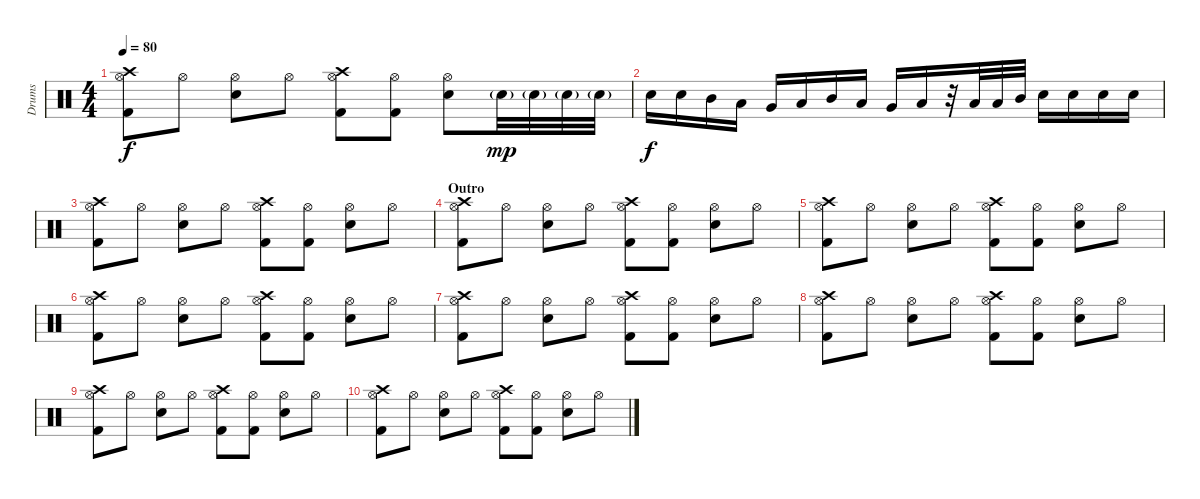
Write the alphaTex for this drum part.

\track ("Drums" "Drums") {instrument percussion}
\staff {score}
\articulation defaults
\ts (4 4)
\tempo 80
\clef neutral
\ks c
("Crash high (hit)" "Hi-Hat (open)" "Kick (hit) 2").8{dy f} "Hi-Hat (open)".8 ("Hi-Hat (open)" "Electric Snare (hit)").8 "Hi-Hat (open)".8 ("Crash high (hit)" "Hi-Hat (open)" "Kick (hit) 2").8 ("Hi-Hat (open)" "Kick (hit) 2").8 ("Hi-Hat (open)" "Electric Snare (hit)").8 "Electric Snare (hit)"{g}.32{dy mp} "Electric Snare (hit)"{g}.32 "Electric Snare (hit)"{g}.32 "Electric Snare (hit)"{g}.32 |
"Electric Snare (hit)".16{dy f} "Electric Snare (hit)".16 "Mid Tom (hit)".16 "Low Tom (hit)".16 "Very Low Tom (hit)".16 "Low Floor Tom (hit)".16 "Mid Tom (hit)".16 "Low Tom (hit)".16 "Very Low Tom (hit)".16 "Low Floor Tom (hit)".16 r.32 "Low Tom (hit)".32 "Low Tom (hit)".32 "Mid Tom (hit)".32 "Electric Snare (hit)".16 "Electric Snare (hit)".16 "Electric Snare (hit)".16 "Electric Snare (hit)".16 |
("Crash high (hit)" "Hi-Hat (open)" "Kick (hit) 2").8 "Hi-Hat (open)".8 ("Hi-Hat (open)" "Electric Snare (hit)").8 "Hi-Hat (open)".8 ("Crash high (hit)" "Hi-Hat (open)" "Kick (hit) 2").8 ("Hi-Hat (open)" "Kick (hit) 2").8 ("Hi-Hat (open)" "Electric Snare (hit)").8 "Hi-Hat (open)".8 |
\section ("" "Outro")
("Crash high (hit)" "Hi-Hat (open)" "Kick (hit) 2").8 "Hi-Hat (open)".8 ("Hi-Hat (open)" "Electric Snare (hit)").8 "Hi-Hat (open)".8 ("Crash high (hit)" "Hi-Hat (open)" "Kick (hit) 2").8 ("Hi-Hat (open)" "Kick (hit) 2").8 ("Hi-Hat (open)" "Electric Snare (hit)").8 "Hi-Hat (open)".8 |
("Crash high (hit)" "Hi-Hat (open)" "Kick (hit) 2").8 "Hi-Hat (open)".8 ("Hi-Hat (open)" "Electric Snare (hit)").8 "Hi-Hat (open)".8 ("Crash high (hit)" "Hi-Hat (open)" "Kick (hit) 2").8 ("Hi-Hat (open)" "Kick (hit) 2").8 ("Hi-Hat (open)" "Electric Snare (hit)").8 "Hi-Hat (open)".8 |
("Crash high (hit)" "Hi-Hat (open)" "Kick (hit) 2").8 "Hi-Hat (open)".8 ("Hi-Hat (open)" "Electric Snare (hit)").8 "Hi-Hat (open)".8 ("Crash high (hit)" "Hi-Hat (open)" "Kick (hit) 2").8 ("Hi-Hat (open)" "Kick (hit) 2").8 ("Hi-Hat (open)" "Electric Snare (hit)").8 "Hi-Hat (open)".8 |
("Crash high (hit)" "Hi-Hat (open)" "Kick (hit) 2").8 "Hi-Hat (open)".8 ("Hi-Hat (open)" "Electric Snare (hit)").8 "Hi-Hat (open)".8 ("Crash high (hit)" "Hi-Hat (open)" "Kick (hit) 2").8 ("Hi-Hat (open)" "Kick (hit) 2").8 ("Hi-Hat (open)" "Electric Snare (hit)").8 "Hi-Hat (open)".8 |
("Crash high (hit)" "Hi-Hat (open)" "Kick (hit) 2").8 "Hi-Hat (open)".8 ("Hi-Hat (open)" "Electric Snare (hit)").8 "Hi-Hat (open)".8 ("Crash high (hit)" "Hi-Hat (open)" "Kick (hit) 2").8 ("Hi-Hat (open)" "Kick (hit) 2").8 ("Hi-Hat (open)" "Electric Snare (hit)").8 "Hi-Hat (open)".8 |
("Crash high (hit)" "Hi-Hat (open)" "Kick (hit) 2").8 "Hi-Hat (open)".8 ("Hi-Hat (open)" "Electric Snare (hit)").8 "Hi-Hat (open)".8 ("Crash high (hit)" "Hi-Hat (open)" "Kick (hit) 2").8 ("Hi-Hat (open)" "Kick (hit) 2").8 ("Hi-Hat (open)" "Electric Snare (hit)").8 "Hi-Hat (open)".8 |
("Crash high (hit)" "Hi-Hat (open)" "Kick (hit) 2").8 "Hi-Hat (open)".8 ("Hi-Hat (open)" "Electric Snare (hit)").8 "Hi-Hat (open)".8 ("Crash high (hit)" "Hi-Hat (open)" "Kick (hit) 2").8 ("Hi-Hat (open)" "Kick (hit) 2").8 ("Hi-Hat (open)" "Electric Snare (hit)").8 "Hi-Hat (open)".8
